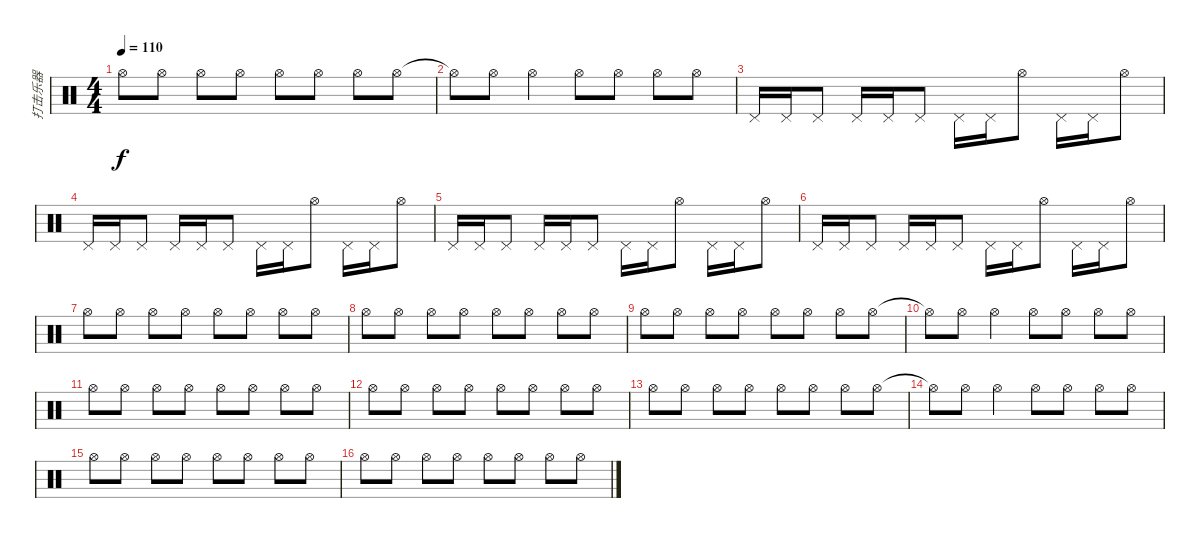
\track ("打击乐器" "打击乐器") {instrument percussion}
\staff {score}
\articulation defaults
\ts (4 4)
\tempo 110
\clef neutral
\ks c "Hi-Hat (open)".8{dy f} "Hi-Hat (open)".8 "Hi-Hat (open)".8 "Hi-Hat (open)".8 "Hi-Hat (open)".8 "Hi-Hat (open)".8 "Hi-Hat (open)".8 "Hi-Hat (open)".8
|
"Hi-Hat (open)"{t}.8 "Hi-Hat (open)".8 "Hi-Hat (open)".4 "Hi-Hat (open)".8 "Hi-Hat (open)".8 "Hi-Hat (open)".8 "Hi-Hat (open)".8 |
"Pedal Hi-Hat (hit)".16 "Pedal Hi-Hat (hit)".16 "Pedal Hi-Hat (hit)".8 "Pedal Hi-Hat (hit)".16 "Pedal Hi-Hat (hit)".16 "Pedal Hi-Hat (hit)".8 "Pedal Hi-Hat (hit)".16 "Pedal Hi-Hat (hit)".16 "Hi-Hat (open)".8 "Pedal Hi-Hat (hit)".16 "Pedal Hi-Hat (hit)".16 "Hi-Hat (open)".8 |
"Pedal Hi-Hat (hit)".16 "Pedal Hi-Hat (hit)".16 "Pedal Hi-Hat (hit)".8 "Pedal Hi-Hat (hit)".16 "Pedal Hi-Hat (hit)".16 "Pedal Hi-Hat (hit)".8 "Pedal Hi-Hat (hit)".16 "Pedal Hi-Hat (hit)".16 "Hi-Hat (open)".8 "Pedal Hi-Hat (hit)".16 "Pedal Hi-Hat (hit)".16 "Hi-Hat (open)".8 |
"Pedal Hi-Hat (hit)".16 "Pedal Hi-Hat (hit)".16 "Pedal Hi-Hat (hit)".8 "Pedal Hi-Hat (hit)".16 "Pedal Hi-Hat (hit)".16 "Pedal Hi-Hat (hit)".8 "Pedal Hi-Hat (hit)".16 "Pedal Hi-Hat (hit)".16 "Hi-Hat (open)".8 "Pedal Hi-Hat (hit)".16 "Pedal Hi-Hat (hit)".16 "Hi-Hat (open)".8 |
"Pedal Hi-Hat (hit)".16 "Pedal Hi-Hat (hit)".16 "Pedal Hi-Hat (hit)".8 "Pedal Hi-Hat (hit)".16 "Pedal Hi-Hat (hit)".16 "Pedal Hi-Hat (hit)".8 "Pedal Hi-Hat (hit)".16 "Pedal Hi-Hat (hit)".16 "Hi-Hat (open)".8 "Pedal Hi-Hat (hit)".16 "Pedal Hi-Hat (hit)".16 "Hi-Hat (open)".8 |
"Hi-Hat (open)".8 "Hi-Hat (open)".8 "Hi-Hat (open)".8 "Hi-Hat (open)".8 "Hi-Hat (open)".8 "Hi-Hat (open)".8 "Hi-Hat (open)".8 "Hi-Hat (open)".8 |
"Hi-Hat (open)".8 "Hi-Hat (open)".8 "Hi-Hat (open)".8 "Hi-Hat (open)".8 "Hi-Hat (open)".8 "Hi-Hat (open)".8 "Hi-Hat (open)".8 "Hi-Hat (open)".8 |
"Hi-Hat (open)".8 "Hi-Hat (open)".8 "Hi-Hat (open)".8 "Hi-Hat (open)".8 "Hi-Hat (open)".8 "Hi-Hat (open)".8 "Hi-Hat (open)".8 "Hi-Hat (open)".8 |
"Hi-Hat (open)"{t}.8 "Hi-Hat (open)".8 "Hi-Hat (open)".4 "Hi-Hat (open)".8 "Hi-Hat (open)".8 "Hi-Hat (open)".8 "Hi-Hat (open)".8 |
"Hi-Hat (open)".8 "Hi-Hat (open)".8 "Hi-Hat (open)".8 "Hi-Hat (open)".8 "Hi-Hat (open)".8 "Hi-Hat (open)".8 "Hi-Hat (open)".8 "Hi-Hat (open)".8 |
"Hi-Hat (open)".8 "Hi-Hat (open)".8 "Hi-Hat (open)".8 "Hi-Hat (open)".8 "Hi-Hat (open)".8 "Hi-Hat (open)".8 "Hi-Hat (open)".8 "Hi-Hat (open)".8 |
"Hi-Hat (open)".8 "Hi-Hat (open)".8 "Hi-Hat (open)".8 "Hi-Hat (open)".8 "Hi-Hat (open)".8 "Hi-Hat (open)".8 "Hi-Hat (open)".8 "Hi-Hat (open)".8 |
"Hi-Hat (open)"{t}.8 "Hi-Hat (open)".8 "Hi-Hat (open)".4 "Hi-Hat (open)".8 "Hi-Hat (open)".8 "Hi-Hat (open)".8 "Hi-Hat (open)".8 |
"Hi-Hat (open)".8 "Hi-Hat (open)".8 "Hi-Hat (open)".8 "Hi-Hat (open)".8 "Hi-Hat (open)".8 "Hi-Hat (open)".8 "Hi-Hat (open)".8 "Hi-Hat (open)".8 |
"Hi-Hat (open)".8 "Hi-Hat (open)".8 "Hi-Hat (open)".8 "Hi-Hat (open)".8 "Hi-Hat (open)".8 "Hi-Hat (open)".8 "Hi-Hat (open)".8 "Hi-Hat (open)".8
